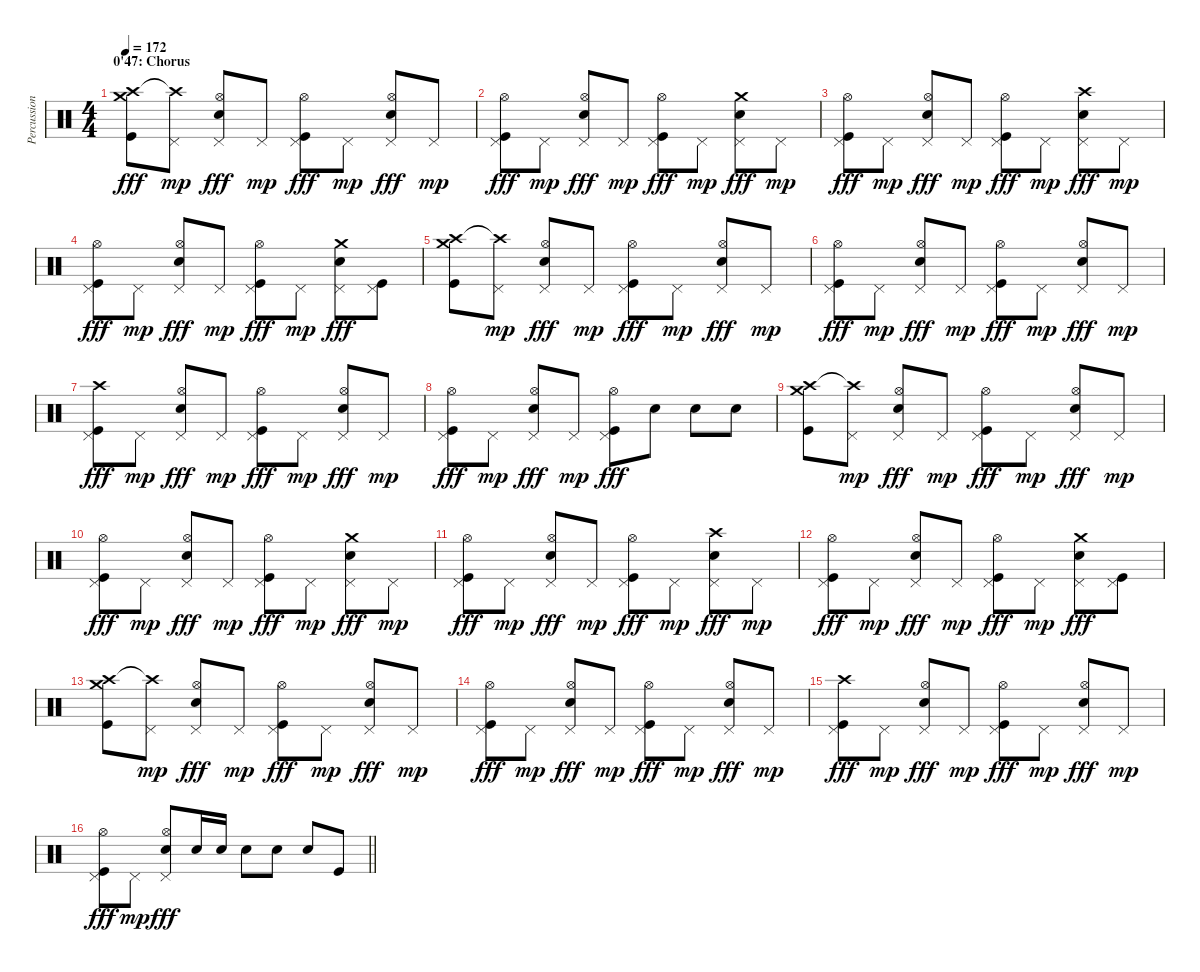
\track ("Percussion" "Percussion") {instrument percussion}
\staff {score}
\articulation defaults
\ts (4 4)
\section ("" "0'47: Chorus")
\tempo 172
\clef neutral
\ks c
("Crash medium (hit)" "Crash high (hit)" "Kick (hit)").8{dy fff} ("Pedal Hi-Hat (hit)" "Crash high (hit)"{t}).8{dy mp} ("Pedal Hi-Hat (hit)" "Hi-Hat (open)" "Electric Snare (hit)").8{dy fff} "Pedal Hi-Hat (hit)".8{dy mp} ("Pedal Hi-Hat (hit)" "Hi-Hat (open)" "Kick (hit)").8{dy fff} "Pedal Hi-Hat (hit)".8{dy mp} ("Pedal Hi-Hat (hit)" "Hi-Hat (open)" "Electric Snare (hit)").8{dy fff} "Pedal Hi-Hat (hit)".8{dy mp} |
("Pedal Hi-Hat (hit)" "Hi-Hat (open)" "Kick (hit)").8{dy fff} "Pedal Hi-Hat (hit)".8{dy mp} ("Pedal Hi-Hat (hit)" "Hi-Hat (open)" "Electric Snare (hit)").8{dy fff} "Pedal Hi-Hat (hit)".8{dy mp} ("Pedal Hi-Hat (hit)" "Hi-Hat (open)" "Kick (hit)").8{dy fff} "Pedal Hi-Hat (hit)".8{dy mp} ("Pedal Hi-Hat (hit)" "Crash medium (hit)" "Electric Snare (hit)").8{dy fff} "Pedal Hi-Hat (hit)".8{dy mp} |
("Pedal Hi-Hat (hit)" "Hi-Hat (open)" "Kick (hit)").8{dy fff} "Pedal Hi-Hat (hit)".8{dy mp} ("Pedal Hi-Hat (hit)" "Hi-Hat (open)" "Electric Snare (hit)").8{dy fff} "Pedal Hi-Hat (hit)".8{dy mp} ("Pedal Hi-Hat (hit)" "Hi-Hat (open)" "Kick (hit)").8{dy fff} "Pedal Hi-Hat (hit)".8{dy mp} ("Pedal Hi-Hat (hit)" "Crash high (hit)" "Electric Snare (hit)").8{dy fff} "Pedal Hi-Hat (hit)".8{dy mp} |
("Pedal Hi-Hat (hit)" "Hi-Hat (open)" "Kick (hit)").8{dy fff} "Pedal Hi-Hat (hit)".8{dy mp} ("Pedal Hi-Hat (hit)" "Hi-Hat (open)" "Electric Snare (hit)").8{dy fff} "Pedal Hi-Hat (hit)".8{dy mp} ("Pedal Hi-Hat (hit)" "Hi-Hat (open)" "Kick (hit)").8{dy fff} "Pedal Hi-Hat (hit)".8{dy mp} ("Pedal Hi-Hat (hit)" "Crash medium (hit)" "Electric Snare (hit)").8{dy fff} ("Pedal Hi-Hat (hit)" "Kick (hit)").8 |
("Crash medium (hit)" "Crash high (hit)" "Kick (hit)").8 ("Pedal Hi-Hat (hit)" "Crash high (hit)"{t}).8{dy mp} ("Pedal Hi-Hat (hit)" "Hi-Hat (open)" "Electric Snare (hit)").8{dy fff} "Pedal Hi-Hat (hit)".8{dy mp} ("Pedal Hi-Hat (hit)" "Hi-Hat (open)" "Kick (hit)").8{dy fff} "Pedal Hi-Hat (hit)".8{dy mp} ("Pedal Hi-Hat (hit)" "Hi-Hat (open)" "Electric Snare (hit)").8{dy fff} "Pedal Hi-Hat (hit)".8{dy mp} |
("Pedal Hi-Hat (hit)" "Hi-Hat (open)" "Kick (hit)").8{dy fff} "Pedal Hi-Hat (hit)".8{dy mp} ("Pedal Hi-Hat (hit)" "Hi-Hat (open)" "Electric Snare (hit)").8{dy fff} "Pedal Hi-Hat (hit)".8{dy mp} ("Pedal Hi-Hat (hit)" "Hi-Hat (open)" "Kick (hit)").8{dy fff} "Pedal Hi-Hat (hit)".8{dy mp} ("Pedal Hi-Hat (hit)" "Hi-Hat (open)" "Electric Snare (hit)").8{dy fff} "Pedal Hi-Hat (hit)".8{dy mp} |
("Pedal Hi-Hat (hit)" "Crash high (hit)" "Kick (hit)").8{dy fff} "Pedal Hi-Hat (hit)".8{dy mp} ("Pedal Hi-Hat (hit)" "Hi-Hat (open)" "Electric Snare (hit)").8{dy fff} "Pedal Hi-Hat (hit)".8{dy mp} ("Pedal Hi-Hat (hit)" "Hi-Hat (open)" "Kick (hit)").8{dy fff} "Pedal Hi-Hat (hit)".8{dy mp} ("Pedal Hi-Hat (hit)" "Hi-Hat (open)" "Electric Snare (hit)").8{dy fff} "Pedal Hi-Hat (hit)".8{dy mp} |
("Pedal Hi-Hat (hit)" "Hi-Hat (open)" "Kick (hit)").8{dy fff} "Pedal Hi-Hat (hit)".8{dy mp} ("Pedal Hi-Hat (hit)" "Hi-Hat (open)" "Electric Snare (hit)").8{dy fff} "Pedal Hi-Hat (hit)".8{dy mp} ("Pedal Hi-Hat (hit)" "Hi-Hat (open)" "Kick (hit)").8{dy fff} "Electric Snare (hit)".8 "Electric Snare (hit)".8 "Electric Snare (hit)".8 |
("Crash medium (hit)" "Crash high (hit)" "Kick (hit)").8 ("Pedal Hi-Hat (hit)" "Crash high (hit)"{t}).8{dy mp} ("Pedal Hi-Hat (hit)" "Hi-Hat (open)" "Electric Snare (hit)").8{dy fff} "Pedal Hi-Hat (hit)".8{dy mp} ("Pedal Hi-Hat (hit)" "Hi-Hat (open)" "Kick (hit)").8{dy fff} "Pedal Hi-Hat (hit)".8{dy mp} ("Pedal Hi-Hat (hit)" "Hi-Hat (open)" "Electric Snare (hit)").8{dy fff} "Pedal Hi-Hat (hit)".8{dy mp} |
("Pedal Hi-Hat (hit)" "Hi-Hat (open)" "Kick (hit)").8{dy fff} "Pedal Hi-Hat (hit)".8{dy mp} ("Pedal Hi-Hat (hit)" "Hi-Hat (open)" "Electric Snare (hit)").8{dy fff} "Pedal Hi-Hat (hit)".8{dy mp} ("Pedal Hi-Hat (hit)" "Hi-Hat (open)" "Kick (hit)").8{dy fff} "Pedal Hi-Hat (hit)".8{dy mp} ("Pedal Hi-Hat (hit)" "Crash medium (hit)" "Electric Snare (hit)").8{dy fff} "Pedal Hi-Hat (hit)".8{dy mp} |
("Pedal Hi-Hat (hit)" "Hi-Hat (open)" "Kick (hit)").8{dy fff} "Pedal Hi-Hat (hit)".8{dy mp} ("Pedal Hi-Hat (hit)" "Hi-Hat (open)" "Electric Snare (hit)").8{dy fff} "Pedal Hi-Hat (hit)".8{dy mp} ("Pedal Hi-Hat (hit)" "Hi-Hat (open)" "Kick (hit)").8{dy fff} "Pedal Hi-Hat (hit)".8{dy mp} ("Pedal Hi-Hat (hit)" "Crash high (hit)" "Electric Snare (hit)").8{dy fff} "Pedal Hi-Hat (hit)".8{dy mp} |
("Pedal Hi-Hat (hit)" "Hi-Hat (open)" "Kick (hit)").8{dy fff} "Pedal Hi-Hat (hit)".8{dy mp} ("Pedal Hi-Hat (hit)" "Hi-Hat (open)" "Electric Snare (hit)").8{dy fff} "Pedal Hi-Hat (hit)".8{dy mp} ("Pedal Hi-Hat (hit)" "Hi-Hat (open)" "Kick (hit)").8{dy fff} "Pedal Hi-Hat (hit)".8{dy mp} ("Pedal Hi-Hat (hit)" "Crash medium (hit)" "Electric Snare (hit)").8{dy fff} ("Pedal Hi-Hat (hit)" "Kick (hit)").8 |
("Crash medium (hit)" "Crash high (hit)" "Kick (hit)").8 ("Pedal Hi-Hat (hit)" "Crash high (hit)"{t}).8{dy mp} ("Pedal Hi-Hat (hit)" "Hi-Hat (open)" "Electric Snare (hit)").8{dy fff} "Pedal Hi-Hat (hit)".8{dy mp} ("Pedal Hi-Hat (hit)" "Hi-Hat (open)" "Kick (hit)").8{dy fff} "Pedal Hi-Hat (hit)".8{dy mp} ("Pedal Hi-Hat (hit)" "Hi-Hat (open)" "Electric Snare (hit)").8{dy fff} "Pedal Hi-Hat (hit)".8{dy mp} |
("Pedal Hi-Hat (hit)" "Hi-Hat (open)" "Kick (hit)").8{dy fff} "Pedal Hi-Hat (hit)".8{dy mp} ("Pedal Hi-Hat (hit)" "Hi-Hat (open)" "Electric Snare (hit)").8{dy fff} "Pedal Hi-Hat (hit)".8{dy mp} ("Pedal Hi-Hat (hit)" "Hi-Hat (open)" "Kick (hit)").8{dy fff} "Pedal Hi-Hat (hit)".8{dy mp} ("Pedal Hi-Hat (hit)" "Hi-Hat (open)" "Electric Snare (hit)").8{dy fff} "Pedal Hi-Hat (hit)".8{dy mp} |
("Pedal Hi-Hat (hit)" "Crash high (hit)" "Kick (hit)").8{dy fff} "Pedal Hi-Hat (hit)".8{dy mp} ("Pedal Hi-Hat (hit)" "Hi-Hat (open)" "Electric Snare (hit)").8{dy fff} "Pedal Hi-Hat (hit)".8{dy mp} ("Pedal Hi-Hat (hit)" "Hi-Hat (open)" "Kick (hit)").8{dy fff} "Pedal Hi-Hat (hit)".8{dy mp} ("Pedal Hi-Hat (hit)" "Hi-Hat (open)" "Electric Snare (hit)").8{dy fff} "Pedal Hi-Hat (hit)".8{dy mp} |
\barLineRight lightlight
("Pedal Hi-Hat (hit)" "Hi-Hat (open)" "Kick (hit)").8{dy fff} "Pedal Hi-Hat (hit)".8{dy mp} ("Pedal Hi-Hat (hit)" "Hi-Hat (open)" "Electric Snare (hit)").8{dy fff} "Electric Snare (hit)".16 "Electric Snare (hit)".16 "Electric Snare (hit)".8 "Electric Snare (hit)".8 "Electric Snare (hit)".8 "Kick (hit)".8
